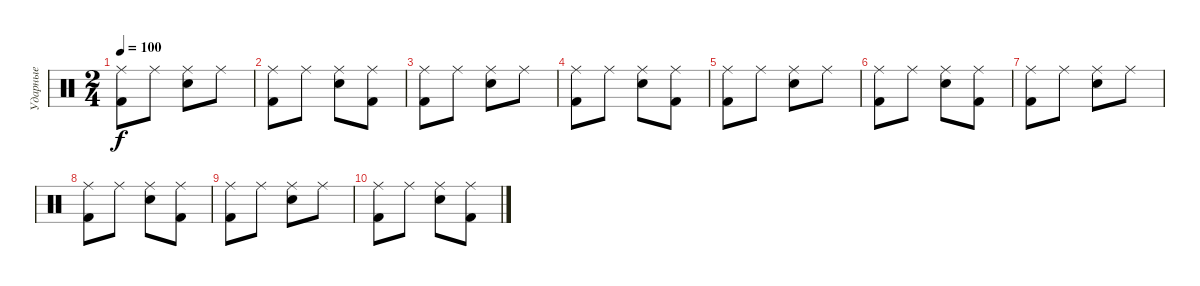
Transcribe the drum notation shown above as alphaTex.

\track ("Ударные" "Ударные") {instrument percussion}
\staff {score}
\articulation defaults
\ts (2 4)
\tempo 100
\clef neutral
\ks c
("Ride (middle)" "Kick (hit) 2").8{dy f} "Ride (middle)".8 ("Ride (middle)" "Snare (hit) 2").8 "Ride (middle)".8 |
("Ride (middle)" "Kick (hit) 2").8 "Ride (middle)".8 ("Ride (middle)" "Snare (hit) 2").8 ("Ride (middle)" "Kick (hit) 2").8 |
("Ride (middle)" "Kick (hit) 2").8 "Ride (middle)".8 ("Ride (middle)" "Snare (hit) 2").8 "Ride (middle)".8 |
("Ride (middle)" "Kick (hit) 2").8 "Ride (middle)".8 ("Ride (middle)" "Snare (hit) 2").8 ("Ride (middle)" "Kick (hit) 2").8 |
("Ride (middle)" "Kick (hit) 2").8 "Ride (middle)".8 ("Ride (middle)" "Snare (hit) 2").8 "Ride (middle)".8 |
("Ride (middle)" "Kick (hit) 2").8 "Ride (middle)".8 ("Ride (middle)" "Snare (hit) 2").8 ("Ride (middle)" "Kick (hit) 2").8 |
("Ride (middle)" "Kick (hit) 2").8 "Ride (middle)".8 ("Ride (middle)" "Snare (hit) 2").8 "Ride (middle)".8 |
("Ride (middle)" "Kick (hit) 2").8 "Ride (middle)".8 ("Ride (middle)" "Snare (hit) 2").8 ("Ride (middle)" "Kick (hit) 2").8 |
("Ride (middle)" "Kick (hit) 2").8 "Ride (middle)".8 ("Ride (middle)" "Snare (hit) 2").8 "Ride (middle)".8 |
("Ride (middle)" "Kick (hit) 2").8 "Ride (middle)".8 ("Ride (middle)" "Snare (hit) 2").8 ("Ride (middle)" "Kick (hit) 2").8
